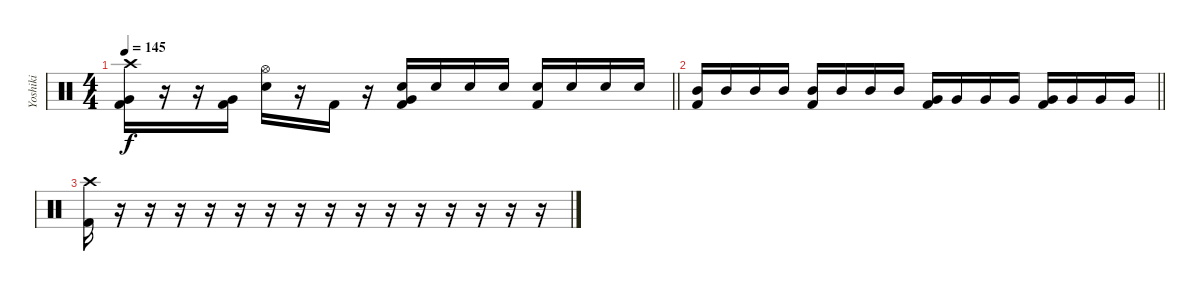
\track ("Yoshiki" "Yoshiki") {instrument percussion}
\staff {score}
\articulation defaults
\ts (4 4)
\tempo 145
\clef neutral
\barLineRight lightlight
\ks c
("Crash high (hit)" "Very Low Tom (hit)" "Kick (hit) 2").16{dy f} r.16 r.16 ("Very Low Tom (hit)" "Kick (hit) 2").16 ("Hi-Hat (open)" "Snare (hit) 2").16 r.16 "Kick (hit) 2".16 r.16 ("Snare (hit) 2" "Very Low Tom (hit)" "Kick (hit) 2").16 "Snare (hit) 2".16 "Snare (hit) 2".16 "Snare (hit) 2".16 ("Snare (hit) 2" "Kick (hit) 2").16 "Snare (hit) 2".16 "Snare (hit) 2".16 "Snare (hit) 2".16 |
\barLineRight lightlight
("Mid Tom (hit)" "Kick (hit) 2").16 "Mid Tom (hit)".16 "Mid Tom (hit)".16 "Mid Tom (hit)".16 ("Mid Tom (hit)" "Kick (hit) 2").16 "Mid Tom (hit)".16 "Mid Tom (hit)".16 "Mid Tom (hit)".16 ("Very Low Tom (hit)" "Kick (hit) 2").16 "Very Low Tom (hit)".16 "Very Low Tom (hit)".16 "Very Low Tom (hit)".16 ("Very Low Tom (hit)" "Kick (hit) 2").16 "Very Low Tom (hit)".16 "Very Low Tom (hit)".16 "Very Low Tom (hit)".16 |
("Crash high (hit)" "Kick (hit) 2").16 r.16 r.16 r.16 r.16 r.16 r.16 r.16 r.16 r.16 r.16 r.16 r.16 r.16 r.16 r.16
